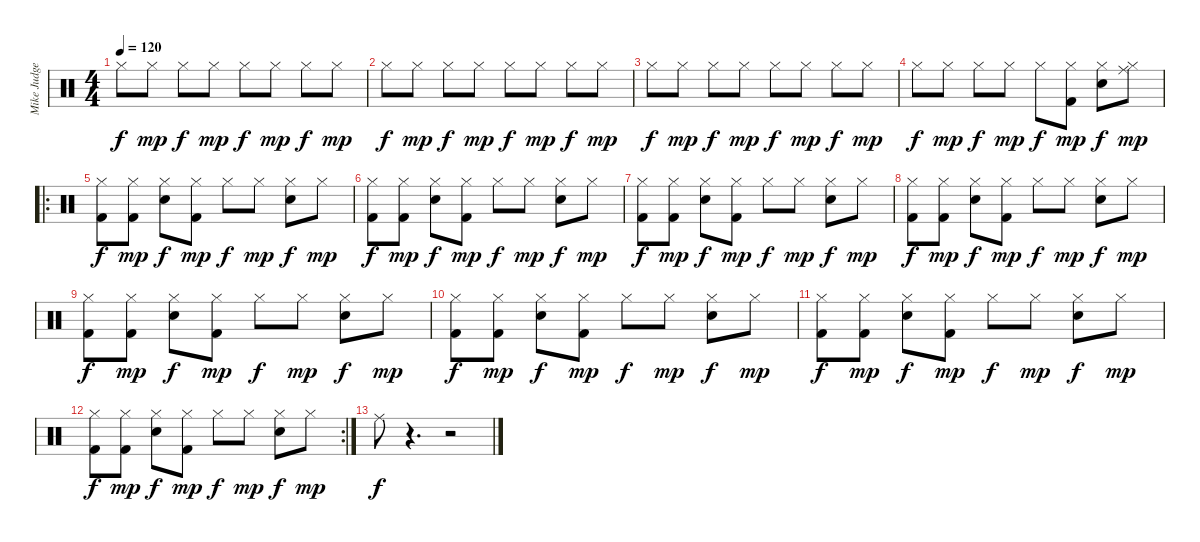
\track ("Mike Judge" "Mike Judge") {instrument percussion}
\staff {score}
\articulation defaults
\ts (4 4)
\tempo 120
\clef neutral
\ks c "Hi-Hat (closed)".8{dy f} "Hi-Hat (closed)".8{dy mp} "Hi-Hat (closed)".8{dy f} "Hi-Hat (closed)".8{dy mp} "Hi-Hat (closed)".8{dy f} "Hi-Hat (closed)".8{dy mp} "Hi-Hat (closed)".8{dy f} "Hi-Hat (closed)".8{dy mp}
|
"Hi-Hat (closed)".8{dy f} "Hi-Hat (closed)".8{dy mp} "Hi-Hat (closed)".8{dy f} "Hi-Hat (closed)".8{dy mp} "Hi-Hat (closed)".8{dy f} "Hi-Hat (closed)".8{dy mp} "Hi-Hat (closed)".8{dy f} "Hi-Hat (closed)".8{dy mp} |
"Hi-Hat (closed)".8{dy f} "Hi-Hat (closed)".8{dy mp} "Hi-Hat (closed)".8{dy f} "Hi-Hat (closed)".8{dy mp} "Hi-Hat (closed)".8{dy f} "Hi-Hat (closed)".8{dy mp} "Hi-Hat (closed)".8{dy f} "Hi-Hat (closed)".8{dy mp} |
"Hi-Hat (closed)".8{dy f} "Hi-Hat (closed)".8{dy mp} "Hi-Hat (closed)".8{dy f} "Hi-Hat (closed)".8{dy mp} "Hi-Hat (closed)".8{dy f} ("Kick (hit) 2" "Hi-Hat (closed)").8{dy mp} ("Snare (hit) 2" "Hi-Hat (closed)").8{dy f} ("Ride (middle)" "Hi-Hat (closed)").8{dy mp} |
\ro
("Kick (hit) 2" "Hi-Hat (closed)").8{dy f} ("Kick (hit) 2" "Hi-Hat (closed)").8{dy mp} ("Snare (hit) 2" "Hi-Hat (closed)").8{dy f} ("Kick (hit) 2" "Hi-Hat (closed)").8{dy mp} "Hi-Hat (closed)".8{dy f} "Hi-Hat (closed)".8{dy mp} ("Snare (hit) 2" "Hi-Hat (closed)").8{dy f} "Hi-Hat (closed)".8{dy mp} |
("Kick (hit) 2" "Hi-Hat (closed)").8{dy f} ("Kick (hit) 2" "Hi-Hat (closed)").8{dy mp} ("Snare (hit) 2" "Hi-Hat (closed)").8{dy f} ("Kick (hit) 2" "Hi-Hat (closed)").8{dy mp} "Hi-Hat (closed)".8{dy f} "Hi-Hat (closed)".8{dy mp} ("Snare (hit) 2" "Hi-Hat (closed)").8{dy f} "Hi-Hat (closed)".8{dy mp} |
("Kick (hit) 2" "Hi-Hat (closed)").8{dy f} ("Kick (hit) 2" "Hi-Hat (closed)").8{dy mp} ("Snare (hit) 2" "Hi-Hat (closed)").8{dy f} ("Kick (hit) 2" "Hi-Hat (closed)").8{dy mp} "Hi-Hat (closed)".8{dy f} "Hi-Hat (closed)".8{dy mp} ("Snare (hit) 2" "Hi-Hat (closed)").8{dy f} "Hi-Hat (closed)".8{dy mp} |
("Kick (hit) 2" "Hi-Hat (closed)").8{dy f} ("Kick (hit) 2" "Hi-Hat (closed)").8{dy mp} ("Snare (hit) 2" "Hi-Hat (closed)").8{dy f} ("Kick (hit) 2" "Hi-Hat (closed)").8{dy mp} "Hi-Hat (closed)".8{dy f} "Hi-Hat (closed)".8{dy mp} ("Snare (hit) 2" "Hi-Hat (closed)").8{dy f} "Hi-Hat (closed)".8{dy mp} |
("Kick (hit) 2" "Hi-Hat (closed)").8{dy f} ("Kick (hit) 2" "Hi-Hat (closed)").8{dy mp} ("Snare (hit) 2" "Hi-Hat (closed)").8{dy f} ("Kick (hit) 2" "Hi-Hat (closed)").8{dy mp} "Hi-Hat (closed)".8{dy f} "Hi-Hat (closed)".8{dy mp} ("Snare (hit) 2" "Hi-Hat (closed)").8{dy f} "Hi-Hat (closed)".8{dy mp} |
("Kick (hit) 2" "Hi-Hat (closed)").8{dy f} ("Kick (hit) 2" "Hi-Hat (closed)").8{dy mp} ("Snare (hit) 2" "Hi-Hat (closed)").8{dy f} ("Kick (hit) 2" "Hi-Hat (closed)").8{dy mp} "Hi-Hat (closed)".8{dy f} "Hi-Hat (closed)".8{dy mp} ("Snare (hit) 2" "Hi-Hat (closed)").8{dy f} "Hi-Hat (closed)".8{dy mp} |
("Kick (hit) 2" "Hi-Hat (closed)").8{dy f} ("Kick (hit) 2" "Hi-Hat (closed)").8{dy mp} ("Snare (hit) 2" "Hi-Hat (closed)").8{dy f} ("Kick (hit) 2" "Hi-Hat (closed)").8{dy mp} "Hi-Hat (closed)".8{dy f} "Hi-Hat (closed)".8{dy mp} ("Snare (hit) 2" "Hi-Hat (closed)").8{dy f} "Hi-Hat (closed)".8{dy mp} |
\rc 2
("Kick (hit) 2" "Hi-Hat (closed)").8{dy f} ("Kick (hit) 2" "Hi-Hat (closed)").8{dy mp} ("Snare (hit) 2" "Hi-Hat (closed)").8{dy f} ("Kick (hit) 2" "Hi-Hat (closed)").8{dy mp} "Hi-Hat (closed)".8{dy f} "Hi-Hat (closed)".8{dy mp} ("Snare (hit) 2" "Hi-Hat (closed)").8{dy f} "Hi-Hat (closed)".8{dy mp} |
"Ride (middle)".8{dy f} r.4{d} r.2
